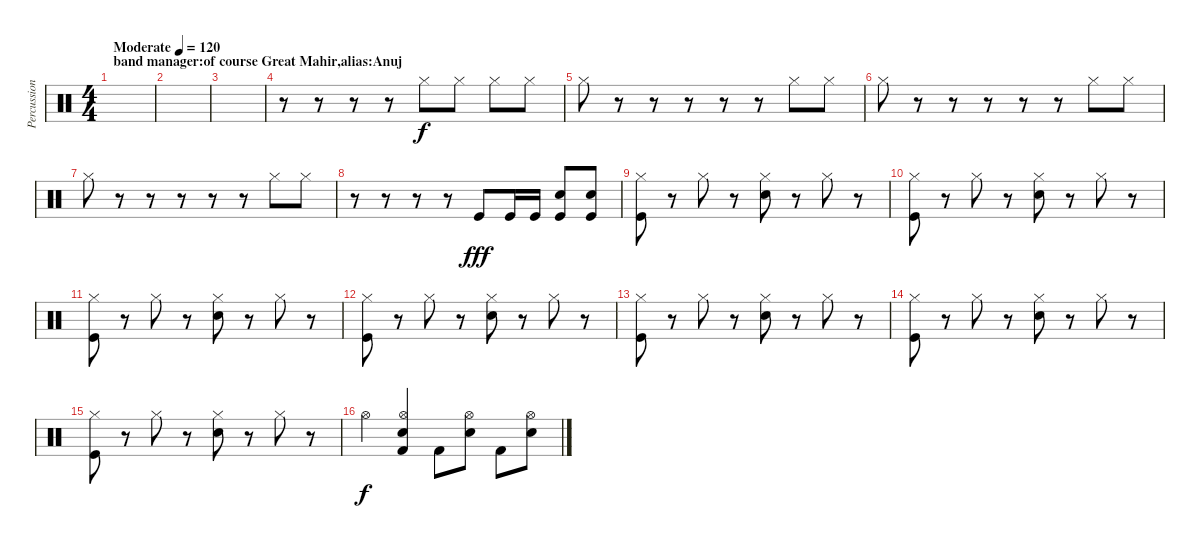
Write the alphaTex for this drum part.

\track ("Percussion(Satish)" "Percussion") {instrument percussion}
\staff {score}
\articulation defaults
\ts (4 4)
\section ("" "band manager:of course Great Mahir,alias:Anuj")
\tempo (120 "Moderate")
\clef neutral
\ks c
|
|
|
r.8 r.8 r.8 r.8 "Hi-Hat (closed)".8 "Hi-Hat (closed)".8 "Hi-Hat (closed)".8 "Hi-Hat (closed)".8 |
"Hi-Hat (closed)".8 r.8 r.8 r.8 r.8 r.8 "Hi-Hat (closed)".8 "Hi-Hat (closed)".8 |
"Hi-Hat (closed)".8 r.8 r.8 r.8 r.8 r.8 "Hi-Hat (closed)".8 "Hi-Hat (closed)".8 |
"Hi-Hat (closed)".8 r.8 r.8 r.8 r.8 r.8 "Hi-Hat (closed)".8 "Hi-Hat (closed)".8 |
r.8 r.8 r.8 r.8 "Kick (hit)".8{dy fff} "Kick (hit)".16 "Kick (hit)".16 ("Electric Snare (hit)" "Kick (hit)").8 ("Electric Snare (hit)" "Kick (hit)").8 |
("Hi-Hat (closed)" "Kick (hit)").8 r.8 "Hi-Hat (closed)".8 r.8 ("Hi-Hat (closed)" "Snare (hit) 2").8 r.8 "Hi-Hat (closed)".8 r.8 |
("Hi-Hat (closed)" "Kick (hit)").8 r.8 "Hi-Hat (closed)".8 r.8 ("Hi-Hat (closed)" "Snare (hit) 2").8 r.8 "Hi-Hat (closed)".8 r.8 |
("Hi-Hat (closed)" "Kick (hit)").8 r.8 "Hi-Hat (closed)".8 r.8 ("Hi-Hat (closed)" "Snare (hit) 2").8 r.8 "Hi-Hat (closed)".8 r.8 |
("Hi-Hat (closed)" "Kick (hit)").8 r.8 "Hi-Hat (closed)".8 r.8 ("Hi-Hat (closed)" "Snare (hit) 2").8 r.8 "Hi-Hat (closed)".8 r.8 |
("Hi-Hat (closed)" "Kick (hit)").8 r.8 "Hi-Hat (closed)".8 r.8 ("Hi-Hat (closed)" "Snare (hit) 2").8 r.8 "Hi-Hat (closed)".8 r.8 |
("Hi-Hat (closed)" "Kick (hit)").8 r.8 "Hi-Hat (closed)".8 r.8 ("Hi-Hat (closed)" "Snare (hit) 2").8 r.8 "Hi-Hat (closed)".8 r.8 |
("Hi-Hat (closed)" "Kick (hit)").8 r.8 "Hi-Hat (closed)".8 r.8 ("Hi-Hat (closed)" "Snare (hit) 2").8 r.8 "Hi-Hat (closed)".8 r.8 |
"Hi-Hat (open)".4{dy f} ("Kick (hit) 2" "Snare (hit) 2" "Hi-Hat (open)").4 "Kick (hit) 2".8 ("Hi-Hat (open)" "Electric Snare (hit)").8 "Kick (hit) 2".8 ("Electric Snare (hit)" "Hi-Hat (open)").8
